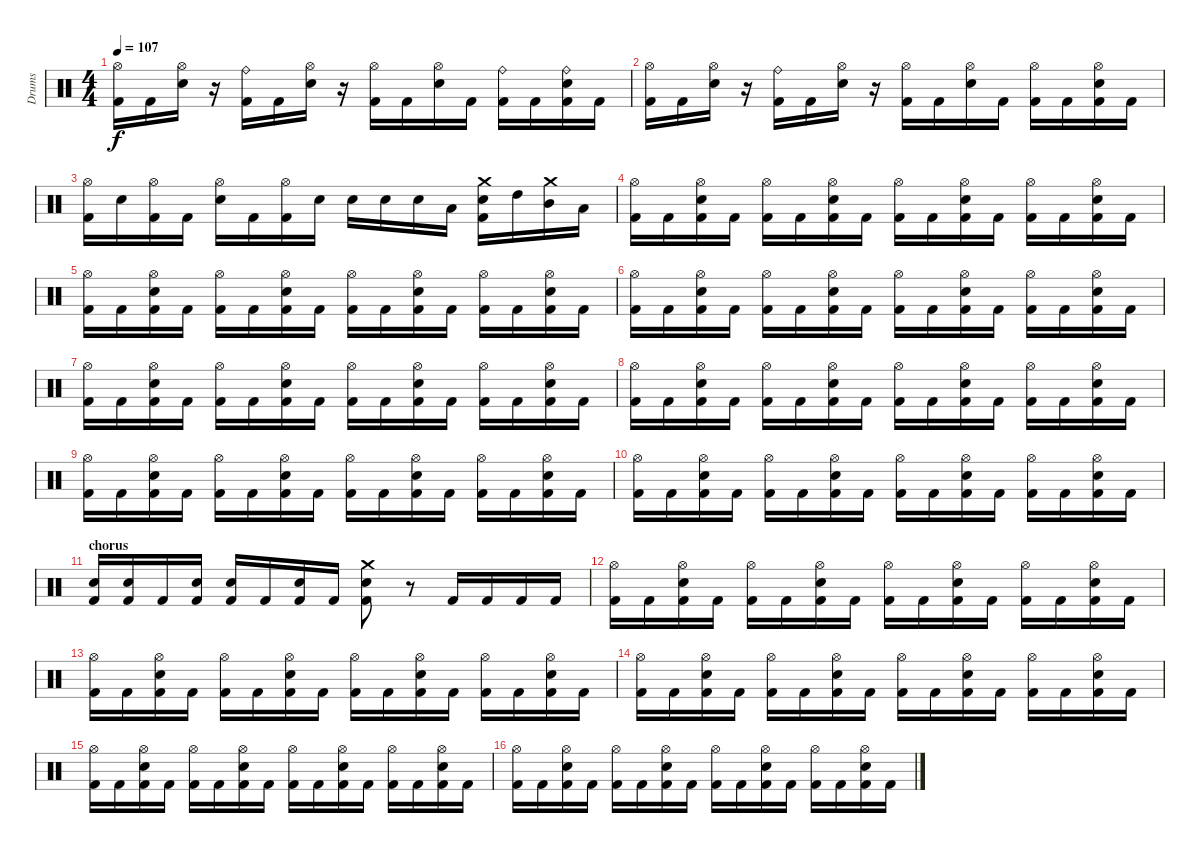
\track ("Drums" "Drums") {instrument percussion}
\staff {score}
\articulation defaults
\ts (4 4)
\tempo 107
\clef neutral
\ks c
("Hi-Hat (open)" "Kick (hit) 2").16{dy f} "Kick (hit) 2".16 ("Hi-Hat (open)" "Snare (hit) 2").16 r.16 ("Ride (bell)" "Kick (hit) 2").16 "Kick (hit) 2".16 ("Hi-Hat (open)" "Snare (hit) 2").16 r.16 ("Hi-Hat (open)" "Kick (hit) 2").16 "Kick (hit) 2".16 ("Hi-Hat (open)" "Snare (hit) 2").16 "Kick (hit) 2".16 ("Ride (bell)" "Kick (hit) 2").16 "Kick (hit) 2".16 ("Ride (bell)" "Snare (hit) 2" "Kick (hit) 2").16 "Kick (hit) 2".16 |
("Hi-Hat (open)" "Kick (hit) 2").16 "Kick (hit) 2".16 ("Hi-Hat (open)" "Snare (hit) 2").16 r.16 ("Ride (bell)" "Kick (hit) 2").16 "Kick (hit) 2".16 ("Hi-Hat (open)" "Snare (hit) 2").16 r.16 ("Hi-Hat (open)" "Kick (hit) 2").16 "Kick (hit) 2".16 ("Hi-Hat (open)" "Snare (hit) 2").16 "Kick (hit) 2".16 ("Hi-Hat (open)" "Kick (hit) 2").16 "Kick (hit) 2".16 ("Hi-Hat (open)" "Snare (hit) 2" "Kick (hit) 2").16 "Kick (hit) 2".16 |
("Hi-Hat (open)" "Kick (hit) 2").16 "Snare (hit) 2".16 ("Hi-Hat (open)" "Kick (hit) 2").16 "Kick (hit) 2".16 ("Hi-Hat (open)" "Snare (hit) 2").16 "Kick (hit) 2".16 ("Hi-Hat (open)" "Kick (hit) 2").16 "Snare (hit) 2".16 "Snare (hit) 2".16 "Snare (hit) 2".16 "Snare (hit) 2".16 "Low Tom (hit)".16 ("Crash medium (hit)" "Snare (hit) 2" "Kick (hit) 2").16 "High Tom (hit)".16 ("Crash medium (hit)" "Mid Tom (hit)").16 "Low Tom (hit)".16 |
("Hi-Hat (open)" "Kick (hit) 2").16 "Kick (hit) 2".16 ("Hi-Hat (open)" "Snare (hit) 2" "Kick (hit) 2").16 "Kick (hit) 2".16 ("Hi-Hat (open)" "Kick (hit) 2").16 "Kick (hit) 2".16 ("Hi-Hat (open)" "Snare (hit) 2" "Kick (hit) 2").16 "Kick (hit) 2".16 ("Hi-Hat (open)" "Kick (hit) 2").16 "Kick (hit) 2".16 ("Hi-Hat (open)" "Snare (hit) 2" "Kick (hit) 2").16 "Kick (hit) 2".16 ("Hi-Hat (open)" "Kick (hit) 2").16 "Kick (hit) 2".16 ("Hi-Hat (open)" "Snare (hit) 2" "Kick (hit) 2").16 "Kick (hit) 2".16 |
("Hi-Hat (open)" "Kick (hit) 2").16 "Kick (hit) 2".16 ("Hi-Hat (open)" "Snare (hit) 2" "Kick (hit) 2").16 "Kick (hit) 2".16 ("Hi-Hat (open)" "Kick (hit) 2").16 "Kick (hit) 2".16 ("Hi-Hat (open)" "Snare (hit) 2" "Kick (hit) 2").16 "Kick (hit) 2".16 ("Hi-Hat (open)" "Kick (hit) 2").16 "Kick (hit) 2".16 ("Hi-Hat (open)" "Snare (hit) 2" "Kick (hit) 2").16 "Kick (hit) 2".16 ("Hi-Hat (open)" "Kick (hit) 2").16 "Kick (hit) 2".16 ("Hi-Hat (open)" "Snare (hit) 2" "Kick (hit) 2").16 "Kick (hit) 2".16 |
("Hi-Hat (open)" "Kick (hit) 2").16 "Kick (hit) 2".16 ("Hi-Hat (open)" "Snare (hit) 2" "Kick (hit) 2").16 "Kick (hit) 2".16 ("Hi-Hat (open)" "Kick (hit) 2").16 "Kick (hit) 2".16 ("Hi-Hat (open)" "Snare (hit) 2" "Kick (hit) 2").16 "Kick (hit) 2".16 ("Hi-Hat (open)" "Kick (hit) 2").16 "Kick (hit) 2".16 ("Hi-Hat (open)" "Snare (hit) 2" "Kick (hit) 2").16 "Kick (hit) 2".16 ("Hi-Hat (open)" "Kick (hit) 2").16 "Kick (hit) 2".16 ("Hi-Hat (open)" "Snare (hit) 2" "Kick (hit) 2").16 "Kick (hit) 2".16 |
("Hi-Hat (open)" "Kick (hit) 2").16 "Kick (hit) 2".16 ("Hi-Hat (open)" "Snare (hit) 2" "Kick (hit) 2").16 "Kick (hit) 2".16 ("Hi-Hat (open)" "Kick (hit) 2").16 "Kick (hit) 2".16 ("Hi-Hat (open)" "Snare (hit) 2" "Kick (hit) 2").16 "Kick (hit) 2".16 ("Hi-Hat (open)" "Kick (hit) 2").16 "Kick (hit) 2".16 ("Hi-Hat (open)" "Snare (hit) 2" "Kick (hit) 2").16 "Kick (hit) 2".16 ("Hi-Hat (open)" "Kick (hit) 2").16 "Kick (hit) 2".16 ("Hi-Hat (open)" "Snare (hit) 2" "Kick (hit) 2").16 "Kick (hit) 2".16 |
("Hi-Hat (open)" "Kick (hit) 2").16 "Kick (hit) 2".16 ("Hi-Hat (open)" "Snare (hit) 2" "Kick (hit) 2").16 "Kick (hit) 2".16 ("Hi-Hat (open)" "Kick (hit) 2").16 "Kick (hit) 2".16 ("Hi-Hat (open)" "Snare (hit) 2" "Kick (hit) 2").16 "Kick (hit) 2".16 ("Hi-Hat (open)" "Kick (hit) 2").16 "Kick (hit) 2".16 ("Hi-Hat (open)" "Snare (hit) 2" "Kick (hit) 2").16 "Kick (hit) 2".16 ("Hi-Hat (open)" "Kick (hit) 2").16 "Kick (hit) 2".16 ("Hi-Hat (open)" "Snare (hit) 2" "Kick (hit) 2").16 "Kick (hit) 2".16 |
("Hi-Hat (open)" "Kick (hit) 2").16 "Kick (hit) 2".16 ("Hi-Hat (open)" "Snare (hit) 2" "Kick (hit) 2").16 "Kick (hit) 2".16 ("Hi-Hat (open)" "Kick (hit) 2").16 "Kick (hit) 2".16 ("Hi-Hat (open)" "Snare (hit) 2" "Kick (hit) 2").16 "Kick (hit) 2".16 ("Hi-Hat (open)" "Kick (hit) 2").16 "Kick (hit) 2".16 ("Hi-Hat (open)" "Snare (hit) 2" "Kick (hit) 2").16 "Kick (hit) 2".16 ("Hi-Hat (open)" "Kick (hit) 2").16 "Kick (hit) 2".16 ("Hi-Hat (open)" "Snare (hit) 2" "Kick (hit) 2").16 "Kick (hit) 2".16 |
("Hi-Hat (open)" "Kick (hit) 2").16 "Kick (hit) 2".16 ("Hi-Hat (open)" "Snare (hit) 2" "Kick (hit) 2").16 "Kick (hit) 2".16 ("Hi-Hat (open)" "Kick (hit) 2").16 "Kick (hit) 2".16 ("Hi-Hat (open)" "Snare (hit) 2" "Kick (hit) 2").16 "Kick (hit) 2".16 ("Hi-Hat (open)" "Kick (hit) 2").16 "Kick (hit) 2".16 ("Hi-Hat (open)" "Snare (hit) 2" "Kick (hit) 2").16 "Kick (hit) 2".16 ("Hi-Hat (open)" "Kick (hit) 2").16 "Kick (hit) 2".16 ("Hi-Hat (open)" "Snare (hit) 2" "Kick (hit) 2").16 "Kick (hit) 2".16 |
\section ("" "chorus")
("Snare (hit) 2" "Kick (hit) 2").16 ("Snare (hit) 2" "Kick (hit) 2").16 "Kick (hit) 2".16 ("Snare (hit) 2" "Kick (hit) 2").16 ("Snare (hit) 2" "Kick (hit) 2").16 "Kick (hit) 2".16 ("Snare (hit) 2" "Kick (hit) 2").16 "Kick (hit) 2".16 ("Crash medium (hit)" "Snare (hit) 2" "Kick (hit) 2").8 r.8 "Kick (hit) 2".16 "Kick (hit) 2".16 "Kick (hit) 2".16 "Kick (hit) 2".16 |
("Hi-Hat (open)" "Kick (hit) 2").16 "Kick (hit) 2".16 ("Hi-Hat (open)" "Snare (hit) 2" "Kick (hit) 2").16 "Kick (hit) 2".16 ("Hi-Hat (open)" "Kick (hit) 2").16 "Kick (hit) 2".16 ("Hi-Hat (open)" "Snare (hit) 2" "Kick (hit) 2").16 "Kick (hit) 2".16 ("Hi-Hat (open)" "Kick (hit) 2").16 "Kick (hit) 2".16 ("Hi-Hat (open)" "Snare (hit) 2" "Kick (hit) 2").16 "Kick (hit) 2".16 ("Hi-Hat (open)" "Kick (hit) 2").16 "Kick (hit) 2".16 ("Hi-Hat (open)" "Snare (hit) 2" "Kick (hit) 2").16 "Kick (hit) 2".16 |
("Hi-Hat (open)" "Kick (hit) 2").16 "Kick (hit) 2".16 ("Hi-Hat (open)" "Snare (hit) 2" "Kick (hit) 2").16 "Kick (hit) 2".16 ("Hi-Hat (open)" "Kick (hit) 2").16 "Kick (hit) 2".16 ("Hi-Hat (open)" "Snare (hit) 2" "Kick (hit) 2").16 "Kick (hit) 2".16 ("Hi-Hat (open)" "Kick (hit) 2").16 "Kick (hit) 2".16 ("Hi-Hat (open)" "Snare (hit) 2" "Kick (hit) 2").16 "Kick (hit) 2".16 ("Hi-Hat (open)" "Kick (hit) 2").16 "Kick (hit) 2".16 ("Hi-Hat (open)" "Snare (hit) 2" "Kick (hit) 2").16 "Kick (hit) 2".16 |
("Hi-Hat (open)" "Kick (hit) 2").16 "Kick (hit) 2".16 ("Hi-Hat (open)" "Snare (hit) 2" "Kick (hit) 2").16 "Kick (hit) 2".16 ("Hi-Hat (open)" "Kick (hit) 2").16 "Kick (hit) 2".16 ("Hi-Hat (open)" "Snare (hit) 2" "Kick (hit) 2").16 "Kick (hit) 2".16 ("Hi-Hat (open)" "Kick (hit) 2").16 "Kick (hit) 2".16 ("Hi-Hat (open)" "Snare (hit) 2" "Kick (hit) 2").16 "Kick (hit) 2".16 ("Hi-Hat (open)" "Kick (hit) 2").16 "Kick (hit) 2".16 ("Hi-Hat (open)" "Snare (hit) 2" "Kick (hit) 2").16 "Kick (hit) 2".16 |
("Hi-Hat (open)" "Kick (hit) 2").16 "Kick (hit) 2".16 ("Hi-Hat (open)" "Snare (hit) 2" "Kick (hit) 2").16 "Kick (hit) 2".16 ("Hi-Hat (open)" "Kick (hit) 2").16 "Kick (hit) 2".16 ("Hi-Hat (open)" "Snare (hit) 2" "Kick (hit) 2").16 "Kick (hit) 2".16 ("Hi-Hat (open)" "Kick (hit) 2").16 "Kick (hit) 2".16 ("Hi-Hat (open)" "Snare (hit) 2" "Kick (hit) 2").16 "Kick (hit) 2".16 ("Hi-Hat (open)" "Kick (hit) 2").16 "Kick (hit) 2".16 ("Hi-Hat (open)" "Snare (hit) 2" "Kick (hit) 2").16 "Kick (hit) 2".16 |
("Hi-Hat (open)" "Kick (hit) 2").16 "Kick (hit) 2".16 ("Hi-Hat (open)" "Snare (hit) 2" "Kick (hit) 2").16 "Kick (hit) 2".16 ("Hi-Hat (open)" "Kick (hit) 2").16 "Kick (hit) 2".16 ("Hi-Hat (open)" "Snare (hit) 2" "Kick (hit) 2").16 "Kick (hit) 2".16 ("Hi-Hat (open)" "Kick (hit) 2").16 "Kick (hit) 2".16 ("Hi-Hat (open)" "Snare (hit) 2" "Kick (hit) 2").16 "Kick (hit) 2".16 ("Hi-Hat (open)" "Kick (hit) 2").16 "Kick (hit) 2".16 ("Hi-Hat (open)" "Snare (hit) 2" "Kick (hit) 2").16 "Kick (hit) 2".16
